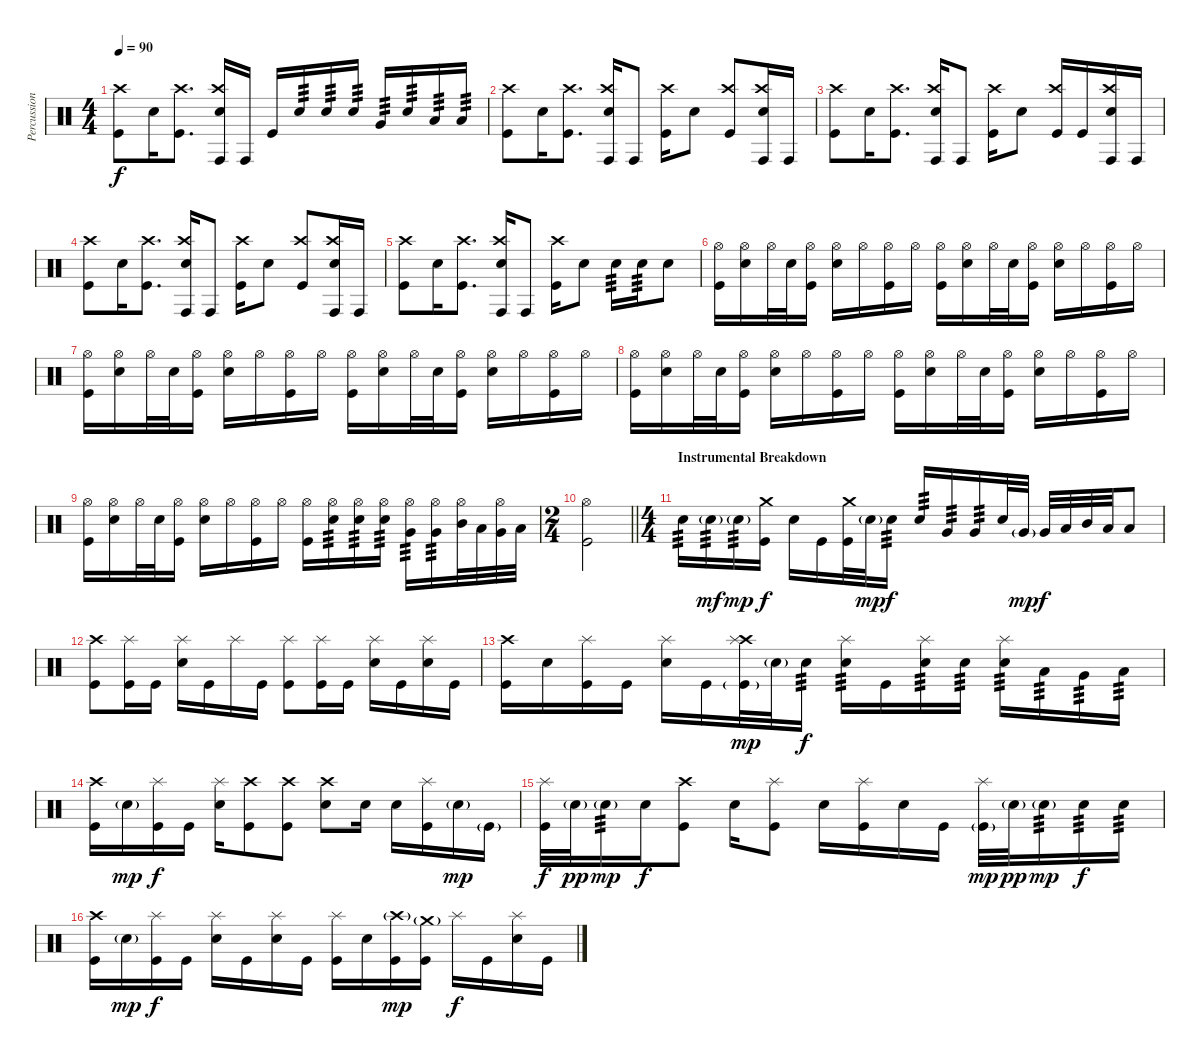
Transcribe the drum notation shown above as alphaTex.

\track ("Percussion" "Percussion") {instrument percussion}
\staff {score}
\articulation defaults
\ts (4 4)
\tempo 90
\clef neutral
\ks c
("Crash high (hit)" "Kick (hit)").8{dy f} "Snare (hit) 2".16 ("Crash high (hit)" "Kick (hit)").8{d} ("Crash high (hit)" "Snare (hit) 2" "Conga high (hit)").16 "Conga high (hit)".16 "Kick (hit)".16 "Snare (hit) 2".16{tp 3} "Snare (hit) 2".16{tp 3} "Snare (hit) 2".16{tp 3} "Very Low Tom (hit)".16{tp 3} "Snare (hit) 2".16{tp 3} "Low Floor Tom (hit)".16{tp 3} "Low Floor Tom (hit)".16{tp 3} |
("Crash high (hit)" "Kick (hit)").8 "Snare (hit) 2".16 ("Crash high (hit)" "Kick (hit)").8{d} ("Crash high (hit)" "Snare (hit) 2" "Conga high (hit)").16 "Conga high (hit)".8 ("Crash high (hit)" "Kick (hit)").16 "Snare (hit) 2".8 ("Crash high (hit)" "Kick (hit)").8 ("Crash high (hit)" "Snare (hit) 2" "Conga high (hit)").16 "Conga high (hit)".16 |
("Crash high (hit)" "Kick (hit)").8 "Snare (hit) 2".16 ("Crash high (hit)" "Kick (hit)").8{d} ("Crash high (hit)" "Snare (hit) 2" "Conga high (hit)").16 "Conga high (hit)".8 ("Crash high (hit)" "Kick (hit)").16 "Snare (hit) 2".8 ("Crash high (hit)" "Kick (hit)").16 "Kick (hit)".16 ("Crash high (hit)" "Snare (hit) 2" "Conga high (hit)").16 "Conga high (hit)".16 |
("Crash high (hit)" "Kick (hit)").8 "Snare (hit) 2".16 ("Crash high (hit)" "Kick (hit)").8{d} ("Crash high (hit)" "Snare (hit) 2" "Conga high (hit)").16 "Conga high (hit)".8 ("Crash high (hit)" "Kick (hit)").16 "Snare (hit) 2".8 ("Crash high (hit)" "Kick (hit)").8 ("Crash high (hit)" "Snare (hit) 2" "Conga high (hit)").16 "Conga high (hit)".16 |
("Crash high (hit)" "Kick (hit)").8 "Snare (hit) 2".16 ("Crash high (hit)" "Kick (hit)").8{d} ("Crash high (hit)" "Snare (hit) 2" "Conga high (hit)").16 "Conga high (hit)".8 ("Crash high (hit)" "Kick (hit)").16 "Snare (hit) 2".8 "Snare (hit) 2".16{tp 3} "Snare (hit) 2".16{tp 3} "Snare (hit) 2".8 |
("Hi-Hat (open)" "Kick (hit)").16 ("Hi-Hat (open)" "Snare (hit) 2").16 "Hi-Hat (open)".32 "Snare (hit) 2".32 ("Hi-Hat (open)" "Kick (hit)").16 ("Hi-Hat (open)" "Snare (hit) 2").16 "Hi-Hat (open)".16 ("Hi-Hat (open)" "Kick (hit)").16 "Hi-Hat (open)".16 ("Hi-Hat (open)" "Kick (hit)").16 ("Hi-Hat (open)" "Snare (hit) 2").16 "Hi-Hat (open)".32 "Snare (hit) 2".32 ("Hi-Hat (open)" "Kick (hit)").16 ("Hi-Hat (open)" "Snare (hit) 2").16 "Hi-Hat (open)".16 ("Hi-Hat (open)" "Kick (hit)").16 "Hi-Hat (open)".16 |
("Hi-Hat (open)" "Kick (hit)").16 ("Hi-Hat (open)" "Snare (hit) 2").16 "Hi-Hat (open)".32 "Snare (hit) 2".32 ("Hi-Hat (open)" "Kick (hit)").16 ("Hi-Hat (open)" "Snare (hit) 2").16 "Hi-Hat (open)".16 ("Hi-Hat (open)" "Kick (hit)").16 "Hi-Hat (open)".16 ("Hi-Hat (open)" "Kick (hit)").16 ("Hi-Hat (open)" "Snare (hit) 2").16 "Hi-Hat (open)".32 "Snare (hit) 2".32 ("Hi-Hat (open)" "Kick (hit)").16 ("Hi-Hat (open)" "Snare (hit) 2").16 "Hi-Hat (open)".16 ("Hi-Hat (open)" "Kick (hit)").16 "Hi-Hat (open)".16 |
("Hi-Hat (open)" "Kick (hit)").16 ("Hi-Hat (open)" "Snare (hit) 2").16 "Hi-Hat (open)".32 "Snare (hit) 2".32 ("Hi-Hat (open)" "Kick (hit)").16 ("Hi-Hat (open)" "Snare (hit) 2").16 "Hi-Hat (open)".16 ("Hi-Hat (open)" "Kick (hit)").16 "Hi-Hat (open)".16 ("Hi-Hat (open)" "Kick (hit)").16 ("Hi-Hat (open)" "Snare (hit) 2").16 "Hi-Hat (open)".32 "Snare (hit) 2".32 ("Hi-Hat (open)" "Kick (hit)").16 ("Hi-Hat (open)" "Snare (hit) 2").16 "Hi-Hat (open)".16 ("Hi-Hat (open)" "Kick (hit)").16 "Hi-Hat (open)".16 |
("Hi-Hat (open)" "Kick (hit)").16 ("Hi-Hat (open)" "Snare (hit) 2").16 "Hi-Hat (open)".32 "Snare (hit) 2".32 ("Hi-Hat (open)" "Kick (hit)").16 ("Hi-Hat (open)" "Snare (hit) 2").16 "Hi-Hat (open)".16 ("Hi-Hat (open)" "Kick (hit)").16 "Hi-Hat (open)".16 ("Hi-Hat (open)" "Kick (hit)").16 ("Hi-Hat (open)" "Snare (hit) 2").16{tp 3} ("Hi-Hat (open)" "Snare (hit) 2").16{tp 3} ("Hi-Hat (open)" "Snare (hit) 2").16{tp 3} ("Hi-Hat (open)" "Very Low Tom (hit)").16{tp 3} ("Hi-Hat (open)" "Very Low Tom (hit)").16{tp 3} ("Hi-Hat (open)" "Mid Tom (hit)").32 "Low Tom (hit)".32 ("Hi-Hat (open)" "Very Low Tom (hit)").32 "Low Floor Tom (hit)".32 |
\ts (2 4)
\barLineRight lightlight
("Hi-Hat (open)" "Kick (hit)").2 |
\ts (4 4)
\section ("" "Instrumental Breakdown")
"Snare (hit) 2".16{tp 3} "Snare (hit) 2"{g}.16{tp 3 dy mf} "Snare (hit) 2"{g}.16{tp 3 dy mp} ("Crash medium (hit)" "Kick (hit)").16{dy f} "Snare (hit) 2".16 "Kick (hit)".16 ("Crash medium (hit)" "Kick (hit)").32 "Snare (hit) 2"{g}.32{dy mp} "Snare (hit) 2".16{tp 3 dy f} "Snare (hit) 2".16{tp 3} "Very Low Tom (hit)".16{tp 3} "Very Low Tom (hit)".16{tp 3} "Snare (hit) 2".32 "Very Low Tom (hit)"{g}.32{dy mp} "Very Low Tom (hit)".32{dy f} "Low Tom (hit)".32 "Mid Tom (hit)".32 "Low Tom (hit)".32 "Low Floor Tom (hit)".8 |
("Crash high (hit)" "Kick (hit)").8 ("Splash (hit)" "Kick (hit)").16 "Kick (hit)".16 ("Splash (hit)" "Snare (hit) 2").16 "Kick (hit)".16 "Splash (hit)".16 "Kick (hit)".16 ("Splash (hit)" "Kick (hit)").8 ("Splash (hit)" "Kick (hit)").16 "Kick (hit)".16 ("Splash (hit)" "Snare (hit) 2").16 "Kick (hit)".16 ("Splash (hit)" "Snare (hit) 2").16 "Kick (hit)".16 |
("Crash high (hit)" "Kick (hit)").16 "Snare (hit) 2".16 ("Splash (hit)" "Kick (hit)").16 "Kick (hit)".16 ("Splash (hit)" "Snare (hit) 2").16 "Kick (hit)".16 ("Crash high (hit)" "Splash (hit)" "Kick (hit)"{g}).32{dy mp} "Snare (hit) 2"{g}.32 "Snare (hit) 2".16{tp 3 dy f} ("Splash (hit)" "Snare (hit) 2").16{tp 3} "Kick (hit)".16 ("Splash (hit)" "Snare (hit) 2").16{tp 3} "Snare (hit) 2".16{tp 3} ("Splash (hit)" "Snare (hit) 2").16{tp 3} "Low Tom (hit)".16{tp 3} "Very Low Tom (hit)".16{tp 3} "Low Floor Tom (hit)".16{tp 3} |
("Crash high (hit)" "Kick (hit)").16 "Snare (hit) 2"{g}.16{dy mp} ("Splash (hit)" "Kick (hit)").16{dy f} "Kick (hit)".16 ("Splash (hit)" "Snare (hit) 2").16 ("Crash high (hit)" "Kick (hit)").8 ("Crash high (hit)" "Kick (hit)").8 ("Crash high (hit)" "Snare (hit) 2").8 "Snare (hit) 2".16 "Snare (hit) 2".16 ("Splash (hit)" "Kick (hit)").16 "Snare (hit) 2"{g}.16{dy mp} "Kick (hit)"{g}.16 |
("Splash (hit)" "Kick (hit)").32{dy f} "Snare (hit) 2"{g}.32{dy pp} "Snare (hit) 2"{g}.16{tp 3 dy mp} "Snare (hit) 2".16{dy f} ("Crash high (hit)" "Kick (hit)").8 "Snare (hit) 2".16 ("Splash (hit)" "Kick (hit)").8 "Snare (hit) 2".16 ("Splash (hit)" "Kick (hit)").16 "Snare (hit) 2".16 "Kick (hit)".16 ("Splash (hit)" "Kick (hit)"{g}).32{dy mp} "Snare (hit) 2"{g}.32{dy pp} "Snare (hit) 2"{g}.16{tp 3 dy mp} "Snare (hit) 2".16{tp 3 dy f} "Snare (hit) 2".16{tp 3} |
("Crash high (hit)" "Kick (hit)").16 "Snare (hit) 2"{g}.16{dy mp} ("Splash (hit)" "Kick (hit)").16{dy f} "Kick (hit)".16 ("Splash (hit)" "Snare (hit) 2").16 "Kick (hit)".16 ("Splash (hit)" "Snare (hit) 2").16 "Kick (hit)".16 ("Splash (hit)" "Kick (hit)").16 "Snare (hit) 2".16 ("Crash high (hit)"{g} "Kick (hit)").16{dy mp} ("Crash medium (hit)"{g} "Kick (hit)").16 "Splash (hit)".16{dy f} "Kick (hit)".16 ("Splash (hit)" "Snare (hit) 2").16 "Kick (hit)".16
